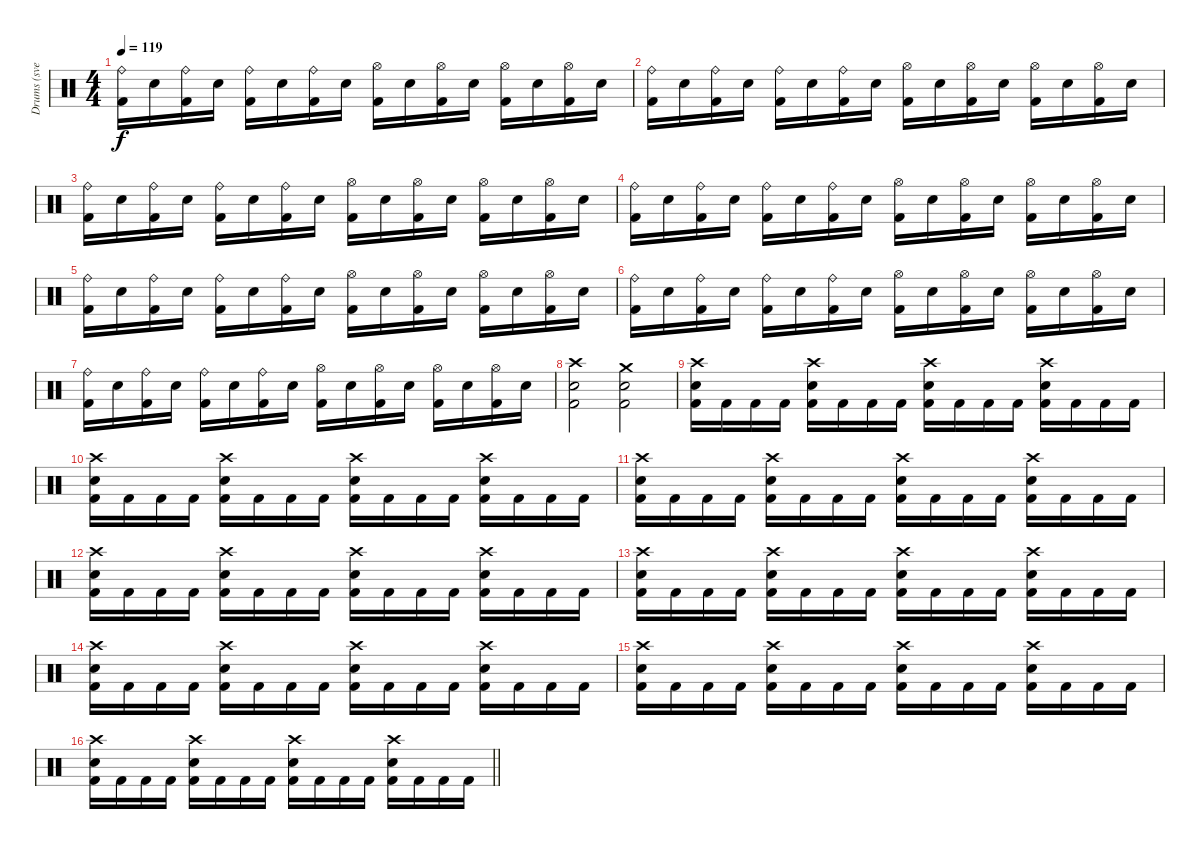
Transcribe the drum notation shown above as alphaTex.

\track ("Drums (svelle)" "Drums (sve") {instrument percussion}
\staff {score}
\articulation defaults
\ts (4 4)
\tempo 119
\clef neutral
\ks c
("Ride (bell)" "Kick (hit) 2").16{dy f} "Electric Snare (hit)".16 ("Ride (bell)" "Kick (hit) 2").16 "Electric Snare (hit)".16 ("Ride (bell)" "Kick (hit) 2").16 "Electric Snare (hit)".16 ("Ride (bell)" "Kick (hit) 2").16 "Electric Snare (hit)".16 ("Hi-Hat (open)" "Kick (hit) 2").16 "Electric Snare (hit)".16 ("Hi-Hat (open)" "Kick (hit) 2").16 "Electric Snare (hit)".16 ("Hi-Hat (open)" "Kick (hit) 2").16 "Electric Snare (hit)".16 ("Hi-Hat (open)" "Kick (hit) 2").16 "Electric Snare (hit)".16 |
("Ride (bell)" "Kick (hit) 2").16 "Electric Snare (hit)".16 ("Ride (bell)" "Kick (hit) 2").16 "Electric Snare (hit)".16 ("Ride (bell)" "Kick (hit) 2").16 "Electric Snare (hit)".16 ("Ride (bell)" "Kick (hit) 2").16 "Electric Snare (hit)".16 ("Hi-Hat (open)" "Kick (hit) 2").16 "Electric Snare (hit)".16 ("Hi-Hat (open)" "Kick (hit) 2").16 "Electric Snare (hit)".16 ("Hi-Hat (open)" "Kick (hit) 2").16 "Electric Snare (hit)".16 ("Hi-Hat (open)" "Kick (hit) 2").16 "Electric Snare (hit)".16 |
("Ride (bell)" "Kick (hit) 2").16 "Electric Snare (hit)".16 ("Ride (bell)" "Kick (hit) 2").16 "Electric Snare (hit)".16 ("Ride (bell)" "Kick (hit) 2").16 "Electric Snare (hit)".16 ("Ride (bell)" "Kick (hit) 2").16 "Electric Snare (hit)".16 ("Hi-Hat (open)" "Kick (hit) 2").16 "Electric Snare (hit)".16 ("Hi-Hat (open)" "Kick (hit) 2").16 "Electric Snare (hit)".16 ("Hi-Hat (open)" "Kick (hit) 2").16 "Electric Snare (hit)".16 ("Hi-Hat (open)" "Kick (hit) 2").16 "Electric Snare (hit)".16 |
("Ride (bell)" "Kick (hit) 2").16 "Electric Snare (hit)".16 ("Ride (bell)" "Kick (hit) 2").16 "Electric Snare (hit)".16 ("Ride (bell)" "Kick (hit) 2").16 "Electric Snare (hit)".16 ("Ride (bell)" "Kick (hit) 2").16 "Electric Snare (hit)".16 ("Hi-Hat (open)" "Kick (hit) 2").16 "Electric Snare (hit)".16 ("Hi-Hat (open)" "Kick (hit) 2").16 "Electric Snare (hit)".16 ("Hi-Hat (open)" "Kick (hit) 2").16 "Electric Snare (hit)".16 ("Hi-Hat (open)" "Kick (hit) 2").16 "Electric Snare (hit)".16 |
("Ride (bell)" "Kick (hit) 2").16 "Electric Snare (hit)".16 ("Ride (bell)" "Kick (hit) 2").16 "Electric Snare (hit)".16 ("Ride (bell)" "Kick (hit) 2").16 "Electric Snare (hit)".16 ("Ride (bell)" "Kick (hit) 2").16 "Electric Snare (hit)".16 ("Hi-Hat (open)" "Kick (hit) 2").16 "Electric Snare (hit)".16 ("Hi-Hat (open)" "Kick (hit) 2").16 "Electric Snare (hit)".16 ("Hi-Hat (open)" "Kick (hit) 2").16 "Electric Snare (hit)".16 ("Hi-Hat (open)" "Kick (hit) 2").16 "Electric Snare (hit)".16 |
("Ride (bell)" "Kick (hit) 2").16 "Electric Snare (hit)".16 ("Ride (bell)" "Kick (hit) 2").16 "Electric Snare (hit)".16 ("Ride (bell)" "Kick (hit) 2").16 "Electric Snare (hit)".16 ("Ride (bell)" "Kick (hit) 2").16 "Electric Snare (hit)".16 ("Hi-Hat (open)" "Kick (hit) 2").16 "Electric Snare (hit)".16 ("Hi-Hat (open)" "Kick (hit) 2").16 "Electric Snare (hit)".16 ("Hi-Hat (open)" "Kick (hit) 2").16 "Electric Snare (hit)".16 ("Hi-Hat (open)" "Kick (hit) 2").16 "Electric Snare (hit)".16 |
("Ride (bell)" "Kick (hit) 2").16 "Electric Snare (hit)".16 ("Ride (bell)" "Kick (hit) 2").16 "Electric Snare (hit)".16 ("Ride (bell)" "Kick (hit) 2").16 "Electric Snare (hit)".16 ("Ride (bell)" "Kick (hit) 2").16 "Electric Snare (hit)".16 ("Hi-Hat (open)" "Kick (hit) 2").16 "Electric Snare (hit)".16 ("Hi-Hat (open)" "Kick (hit) 2").16 "Electric Snare (hit)".16 ("Hi-Hat (open)" "Kick (hit) 2").16 "Electric Snare (hit)".16 ("Hi-Hat (open)" "Kick (hit) 2").16 "Electric Snare (hit)".16 |
("Crash high (hit)" "Electric Snare (hit)" "Kick (hit) 2").2 ("Crash medium (hit)" "Electric Snare (hit)" "Kick (hit) 2").2 |
("Crash high (hit)" "Electric Snare (hit)" "Kick (hit) 2").16 "Kick (hit) 2".16 "Kick (hit) 2".16 "Kick (hit) 2".16 ("Crash high (hit)" "Electric Snare (hit)" "Kick (hit) 2").16 "Kick (hit) 2".16 "Kick (hit) 2".16 "Kick (hit) 2".16 ("Crash high (hit)" "Electric Snare (hit)" "Kick (hit) 2").16 "Kick (hit) 2".16 "Kick (hit) 2".16 "Kick (hit) 2".16 ("Crash high (hit)" "Electric Snare (hit)" "Kick (hit) 2").16 "Kick (hit) 2".16 "Kick (hit) 2".16 "Kick (hit) 2".16 |
("Crash high (hit)" "Electric Snare (hit)" "Kick (hit) 2").16 "Kick (hit) 2".16 "Kick (hit) 2".16 "Kick (hit) 2".16 ("Crash high (hit)" "Electric Snare (hit)" "Kick (hit) 2").16 "Kick (hit) 2".16 "Kick (hit) 2".16 "Kick (hit) 2".16 ("Crash high (hit)" "Electric Snare (hit)" "Kick (hit) 2").16 "Kick (hit) 2".16 "Kick (hit) 2".16 "Kick (hit) 2".16 ("Crash high (hit)" "Electric Snare (hit)" "Kick (hit) 2").16 "Kick (hit) 2".16 "Kick (hit) 2".16 "Kick (hit) 2".16 |
("Crash high (hit)" "Electric Snare (hit)" "Kick (hit) 2").16 "Kick (hit) 2".16 "Kick (hit) 2".16 "Kick (hit) 2".16 ("Crash high (hit)" "Electric Snare (hit)" "Kick (hit) 2").16 "Kick (hit) 2".16 "Kick (hit) 2".16 "Kick (hit) 2".16 ("Crash high (hit)" "Electric Snare (hit)" "Kick (hit) 2").16 "Kick (hit) 2".16 "Kick (hit) 2".16 "Kick (hit) 2".16 ("Crash high (hit)" "Electric Snare (hit)" "Kick (hit) 2").16 "Kick (hit) 2".16 "Kick (hit) 2".16 "Kick (hit) 2".16 |
("Crash high (hit)" "Electric Snare (hit)" "Kick (hit) 2").16 "Kick (hit) 2".16 "Kick (hit) 2".16 "Kick (hit) 2".16 ("Crash high (hit)" "Electric Snare (hit)" "Kick (hit) 2").16 "Kick (hit) 2".16 "Kick (hit) 2".16 "Kick (hit) 2".16 ("Crash high (hit)" "Electric Snare (hit)" "Kick (hit) 2").16 "Kick (hit) 2".16 "Kick (hit) 2".16 "Kick (hit) 2".16 ("Crash high (hit)" "Electric Snare (hit)" "Kick (hit) 2").16 "Kick (hit) 2".16 "Kick (hit) 2".16 "Kick (hit) 2".16 |
("Crash high (hit)" "Electric Snare (hit)" "Kick (hit) 2").16 "Kick (hit) 2".16 "Kick (hit) 2".16 "Kick (hit) 2".16 ("Crash high (hit)" "Electric Snare (hit)" "Kick (hit) 2").16 "Kick (hit) 2".16 "Kick (hit) 2".16 "Kick (hit) 2".16 ("Crash high (hit)" "Electric Snare (hit)" "Kick (hit) 2").16 "Kick (hit) 2".16 "Kick (hit) 2".16 "Kick (hit) 2".16 ("Crash high (hit)" "Electric Snare (hit)" "Kick (hit) 2").16 "Kick (hit) 2".16 "Kick (hit) 2".16 "Kick (hit) 2".16 |
("Crash high (hit)" "Electric Snare (hit)" "Kick (hit) 2").16 "Kick (hit) 2".16 "Kick (hit) 2".16 "Kick (hit) 2".16 ("Crash high (hit)" "Electric Snare (hit)" "Kick (hit) 2").16 "Kick (hit) 2".16 "Kick (hit) 2".16 "Kick (hit) 2".16 ("Crash high (hit)" "Electric Snare (hit)" "Kick (hit) 2").16 "Kick (hit) 2".16 "Kick (hit) 2".16 "Kick (hit) 2".16 ("Crash high (hit)" "Electric Snare (hit)" "Kick (hit) 2").16 "Kick (hit) 2".16 "Kick (hit) 2".16 "Kick (hit) 2".16 |
("Crash high (hit)" "Electric Snare (hit)" "Kick (hit) 2").16 "Kick (hit) 2".16 "Kick (hit) 2".16 "Kick (hit) 2".16 ("Crash high (hit)" "Electric Snare (hit)" "Kick (hit) 2").16 "Kick (hit) 2".16 "Kick (hit) 2".16 "Kick (hit) 2".16 ("Crash high (hit)" "Electric Snare (hit)" "Kick (hit) 2").16 "Kick (hit) 2".16 "Kick (hit) 2".16 "Kick (hit) 2".16 ("Crash high (hit)" "Electric Snare (hit)" "Kick (hit) 2").16 "Kick (hit) 2".16 "Kick (hit) 2".16 "Kick (hit) 2".16 |
\barLineRight lightlight
("Crash high (hit)" "Electric Snare (hit)" "Kick (hit) 2").16 "Kick (hit) 2".16 "Kick (hit) 2".16 "Kick (hit) 2".16 ("Crash high (hit)" "Electric Snare (hit)" "Kick (hit) 2").16 "Kick (hit) 2".16 "Kick (hit) 2".16 "Kick (hit) 2".16 ("Crash high (hit)" "Electric Snare (hit)" "Kick (hit) 2").16 "Kick (hit) 2".16 "Kick (hit) 2".16 "Kick (hit) 2".16 ("Crash high (hit)" "Electric Snare (hit)" "Kick (hit) 2").16 "Kick (hit) 2".16 "Kick (hit) 2".16 "Kick (hit) 2".16
